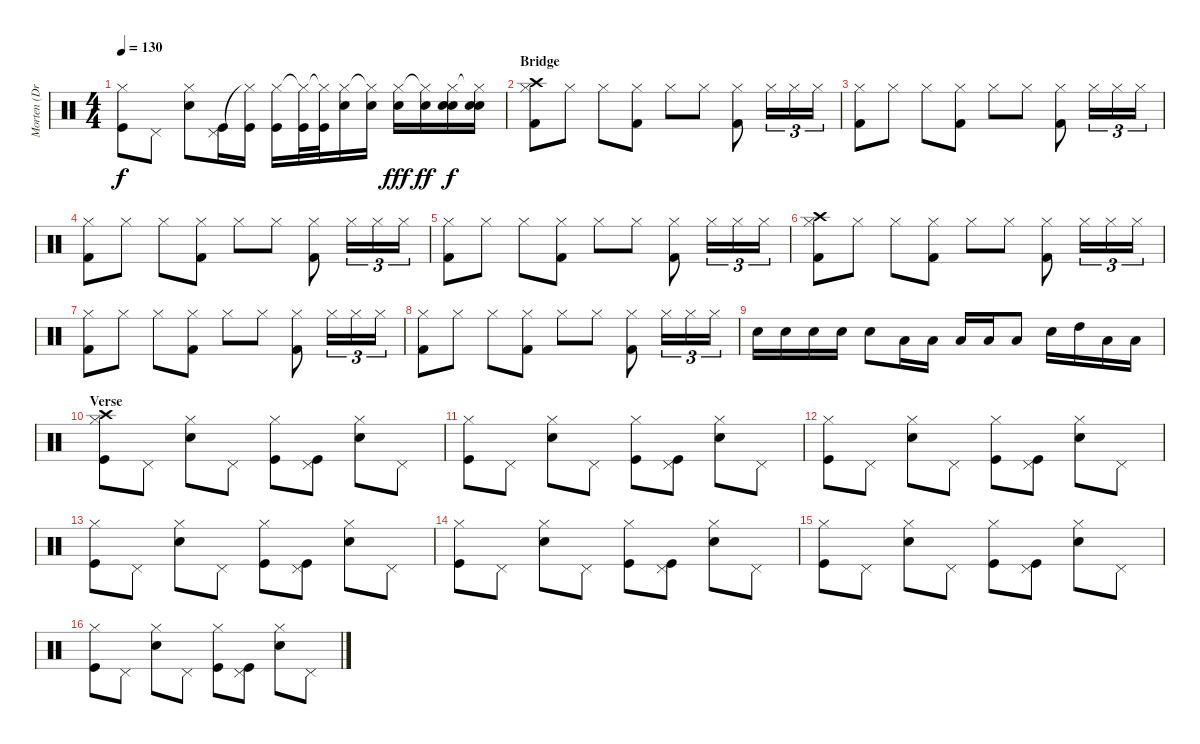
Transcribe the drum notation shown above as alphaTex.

\track ("Morten (Drums)" "Morten (Dr") {instrument percussion}
\staff {score}
\articulation defaults
\ts (4 4)
\tempo 130
\clef neutral
\ks c
("Hi-Hat (closed)" "Kick (hit)").8{dy f} "Pedal Hi-Hat (hit)".8 ("Hi-Hat (closed)" "Snare (hit) 2").8 ("Pedal Hi-Hat (hit)" "Kick (hit)").16 ("Hi-Hat (closed)"{t} "Kick (hit)").16 ("Hi-Hat (closed)" "Kick (hit)").16 ("Hi-Hat (closed)"{t} "Kick (hit)").32 ("Hi-Hat (closed)"{t} "Kick (hit)").32 ("Hi-Hat (closed)" "Snare (hit) 2").16 ("Hi-Hat (closed)"{t} "Snare (hit) 2").16 ("Hi-Hat (closed)" "Snare (hit) 2").16{dy fff} ("Hi-Hat (closed)"{t} "Snare (hit) 2").16{dy ff} ("Hi-Hat (closed)" "Snare (hit) 2" "Snare (hit) 2").16{dy f} ("Hi-Hat (closed)"{t} "Snare (hit) 2" "Snare (hit) 2").16 |
\section ("" "Bridge")
("Crash high (hit)" "Hi-Hat (closed)" "Kick (hit) 2").8 "Hi-Hat (closed)".8 "Hi-Hat (closed)".8 ("Hi-Hat (closed)" "Kick (hit) 2").8 "Hi-Hat (closed)".8 "Hi-Hat (closed)".8 ("Hi-Hat (closed)" "Kick (hit) 2").8 "Hi-Hat (closed)".16{tu (3 2)} "Hi-Hat (closed)".16{tu (3 2)} "Hi-Hat (closed)".16{tu (3 2)} |
("Hi-Hat (closed)" "Kick (hit) 2").8 "Hi-Hat (closed)".8 "Hi-Hat (closed)".8 ("Hi-Hat (closed)" "Kick (hit) 2").8 "Hi-Hat (closed)".8 "Hi-Hat (closed)".8 ("Hi-Hat (closed)" "Kick (hit) 2").8 "Hi-Hat (closed)".16{tu (3 2)} "Hi-Hat (closed)".16{tu (3 2)} "Hi-Hat (closed)".16{tu (3 2)} |
("Hi-Hat (closed)" "Kick (hit) 2").8 "Hi-Hat (closed)".8 "Hi-Hat (closed)".8 ("Hi-Hat (closed)" "Kick (hit) 2").8 "Hi-Hat (closed)".8 "Hi-Hat (closed)".8 ("Hi-Hat (closed)" "Kick (hit) 2").8 "Hi-Hat (closed)".16{tu (3 2)} "Hi-Hat (closed)".16{tu (3 2)} "Hi-Hat (closed)".16{tu (3 2)} |
("Hi-Hat (closed)" "Kick (hit) 2").8 "Hi-Hat (closed)".8 "Hi-Hat (closed)".8 ("Hi-Hat (closed)" "Kick (hit) 2").8 "Hi-Hat (closed)".8 "Hi-Hat (closed)".8 ("Hi-Hat (closed)" "Kick (hit) 2").8 "Hi-Hat (closed)".16{tu (3 2)} "Hi-Hat (closed)".16{tu (3 2)} "Hi-Hat (closed)".16{tu (3 2)} |
("Crash high (hit)" "Hi-Hat (closed)" "Kick (hit) 2").8 "Hi-Hat (closed)".8 "Hi-Hat (closed)".8 ("Hi-Hat (closed)" "Kick (hit) 2").8 "Hi-Hat (closed)".8 "Hi-Hat (closed)".8 ("Hi-Hat (closed)" "Kick (hit) 2").8 "Hi-Hat (closed)".16{tu (3 2)} "Hi-Hat (closed)".16{tu (3 2)} "Hi-Hat (closed)".16{tu (3 2)} |
("Hi-Hat (closed)" "Kick (hit) 2").8 "Hi-Hat (closed)".8 "Hi-Hat (closed)".8 ("Hi-Hat (closed)" "Kick (hit) 2").8 "Hi-Hat (closed)".8 "Hi-Hat (closed)".8 ("Hi-Hat (closed)" "Kick (hit) 2").8 "Hi-Hat (closed)".16{tu (3 2)} "Hi-Hat (closed)".16{tu (3 2)} "Hi-Hat (closed)".16{tu (3 2)} |
("Hi-Hat (closed)" "Kick (hit) 2").8 "Hi-Hat (closed)".8 "Hi-Hat (closed)".8 ("Hi-Hat (closed)" "Kick (hit) 2").8 "Hi-Hat (closed)".8 "Hi-Hat (closed)".8 ("Hi-Hat (closed)" "Kick (hit) 2").8 "Hi-Hat (closed)".16{tu (3 2)} "Hi-Hat (closed)".16{tu (3 2)} "Hi-Hat (closed)".16{tu (3 2)} |
"Snare (hit) 2".16 "Snare (hit) 2".16 "Snare (hit) 2".16 "Snare (hit) 2".16 "Snare (hit) 2".8 "Low Tom (hit)".16 "Low Tom (hit)".16 "Low Tom (hit)".16 "Low Tom (hit)".16 "Low Tom (hit)".8 "Snare (hit) 2".16 "High Tom (hit)".16 "Low Tom (hit)".16 "Low Floor Tom (hit)".16 |
\section ("" "Verse")
("Hi-Hat (closed)" "Kick (hit)" "Crash high (hit)").8 "Pedal Hi-Hat (hit)".8 ("Hi-Hat (closed)" "Snare (hit) 2").8 "Pedal Hi-Hat (hit)".8 ("Hi-Hat (closed)" "Kick (hit)").8 ("Pedal Hi-Hat (hit)" "Kick (hit)").8 ("Hi-Hat (closed)" "Snare (hit) 2").8 "Pedal Hi-Hat (hit)".8 |
("Hi-Hat (closed)" "Kick (hit)").8 "Pedal Hi-Hat (hit)".8 ("Hi-Hat (closed)" "Snare (hit) 2").8 "Pedal Hi-Hat (hit)".8 ("Hi-Hat (closed)" "Kick (hit)").8 ("Pedal Hi-Hat (hit)" "Kick (hit)").8 ("Hi-Hat (closed)" "Snare (hit) 2").8 "Pedal Hi-Hat (hit)".8 |
("Hi-Hat (closed)" "Kick (hit)").8 "Pedal Hi-Hat (hit)".8 ("Hi-Hat (closed)" "Snare (hit) 2").8 "Pedal Hi-Hat (hit)".8 ("Hi-Hat (closed)" "Kick (hit)").8 ("Pedal Hi-Hat (hit)" "Kick (hit)").8 ("Hi-Hat (closed)" "Snare (hit) 2").8 "Pedal Hi-Hat (hit)".8 |
("Hi-Hat (closed)" "Kick (hit)").8 "Pedal Hi-Hat (hit)".8 ("Hi-Hat (closed)" "Snare (hit) 2").8 "Pedal Hi-Hat (hit)".8 ("Hi-Hat (closed)" "Kick (hit)").8 ("Pedal Hi-Hat (hit)" "Kick (hit)").8 ("Hi-Hat (closed)" "Snare (hit) 2").8 "Pedal Hi-Hat (hit)".8 |
("Hi-Hat (closed)" "Kick (hit)").8 "Pedal Hi-Hat (hit)".8 ("Hi-Hat (closed)" "Snare (hit) 2").8 "Pedal Hi-Hat (hit)".8 ("Hi-Hat (closed)" "Kick (hit)").8 ("Pedal Hi-Hat (hit)" "Kick (hit)").8 ("Hi-Hat (closed)" "Snare (hit) 2").8 "Pedal Hi-Hat (hit)".8 |
("Hi-Hat (closed)" "Kick (hit)").8 "Pedal Hi-Hat (hit)".8 ("Hi-Hat (closed)" "Snare (hit) 2").8 "Pedal Hi-Hat (hit)".8 ("Hi-Hat (closed)" "Kick (hit)").8 ("Pedal Hi-Hat (hit)" "Kick (hit)").8 ("Hi-Hat (closed)" "Snare (hit) 2").8 "Pedal Hi-Hat (hit)".8 |
("Hi-Hat (closed)" "Kick (hit)").8 "Pedal Hi-Hat (hit)".8 ("Hi-Hat (closed)" "Snare (hit) 2").8 "Pedal Hi-Hat (hit)".8 ("Hi-Hat (closed)" "Kick (hit)").8 ("Pedal Hi-Hat (hit)" "Kick (hit)").8 ("Hi-Hat (closed)" "Snare (hit) 2").8 "Pedal Hi-Hat (hit)".8
